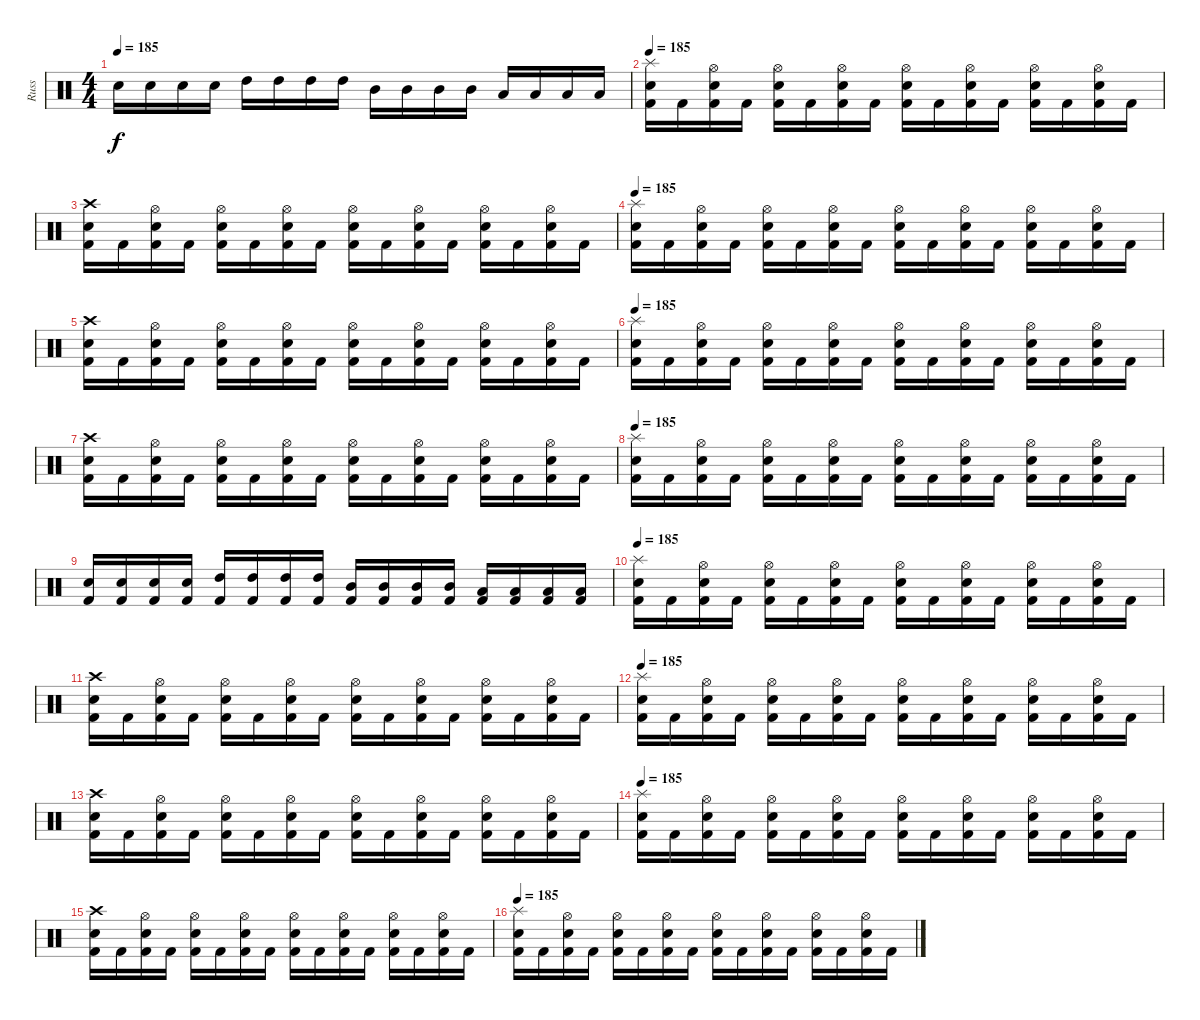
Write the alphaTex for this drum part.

\track ("Russ" "Russ") {instrument percussion}
\staff {score}
\articulation defaults
\ts (4 4)
\tempo 185
\clef neutral
\ks c "Snare (hit) 2".16{dy f} "Snare (hit) 2".16 "Snare (hit) 2".16 "Snare (hit) 2".16 "High Tom (hit)".16 "High Tom (hit)".16 "High Tom (hit)".16 "High Tom (hit)".16 "Mid Tom (hit)".16 "Mid Tom (hit)".16 "Mid Tom (hit)".16 "Mid Tom (hit)".16 "Low Floor Tom (hit)".16 "Low Floor Tom (hit)".16 "Low Floor Tom (hit)".16 "Low Floor Tom (hit)".16
|
\tempo 185
("Kick (hit) 2" "Snare (hit) 2" "Splash (hit)").16 "Kick (hit) 2".16 ("Kick (hit) 2" "Snare (hit) 2" "Hi-Hat (open)").16 "Kick (hit) 2".16 ("Kick (hit) 2" "Snare (hit) 2" "Hi-Hat (open)").16 "Kick (hit) 2".16 ("Kick (hit) 2" "Snare (hit) 2" "Hi-Hat (open)").16 "Kick (hit) 2".16 ("Kick (hit) 2" "Snare (hit) 2" "Hi-Hat (open)").16 "Kick (hit) 2".16 ("Kick (hit) 2" "Snare (hit) 2" "Hi-Hat (open)").16 "Kick (hit) 2".16 ("Kick (hit) 2" "Snare (hit) 2" "Hi-Hat (open)").16 "Kick (hit) 2".16 ("Kick (hit) 2" "Snare (hit) 2" "Hi-Hat (open)").16 "Kick (hit) 2".16 |
("Kick (hit) 2" "Snare (hit) 2" "Crash high (hit)").16 "Kick (hit) 2".16 ("Kick (hit) 2" "Snare (hit) 2" "Hi-Hat (open)").16 "Kick (hit) 2".16 ("Kick (hit) 2" "Snare (hit) 2" "Hi-Hat (open)").16 "Kick (hit) 2".16 ("Kick (hit) 2" "Snare (hit) 2" "Hi-Hat (open)").16 "Kick (hit) 2".16 ("Kick (hit) 2" "Snare (hit) 2" "Hi-Hat (open)").16 "Kick (hit) 2".16 ("Kick (hit) 2" "Snare (hit) 2" "Hi-Hat (open)").16 "Kick (hit) 2".16 ("Kick (hit) 2" "Snare (hit) 2" "Hi-Hat (open)").16 "Kick (hit) 2".16 ("Kick (hit) 2" "Snare (hit) 2" "Hi-Hat (open)").16 "Kick (hit) 2".16 |
\tempo 185
("Kick (hit) 2" "Snare (hit) 2" "Splash (hit)").16 "Kick (hit) 2".16 ("Kick (hit) 2" "Snare (hit) 2" "Hi-Hat (open)").16 "Kick (hit) 2".16 ("Kick (hit) 2" "Snare (hit) 2" "Hi-Hat (open)").16 "Kick (hit) 2".16 ("Kick (hit) 2" "Snare (hit) 2" "Hi-Hat (open)").16 "Kick (hit) 2".16 ("Kick (hit) 2" "Snare (hit) 2" "Hi-Hat (open)").16 "Kick (hit) 2".16 ("Kick (hit) 2" "Snare (hit) 2" "Hi-Hat (open)").16 "Kick (hit) 2".16 ("Kick (hit) 2" "Snare (hit) 2" "Hi-Hat (open)").16 "Kick (hit) 2".16 ("Kick (hit) 2" "Snare (hit) 2" "Hi-Hat (open)").16 "Kick (hit) 2".16 |
("Kick (hit) 2" "Snare (hit) 2" "Crash high (hit)").16 "Kick (hit) 2".16 ("Kick (hit) 2" "Snare (hit) 2" "Hi-Hat (open)").16 "Kick (hit) 2".16 ("Kick (hit) 2" "Snare (hit) 2" "Hi-Hat (open)").16 "Kick (hit) 2".16 ("Kick (hit) 2" "Snare (hit) 2" "Hi-Hat (open)").16 "Kick (hit) 2".16 ("Kick (hit) 2" "Snare (hit) 2" "Hi-Hat (open)").16 "Kick (hit) 2".16 ("Kick (hit) 2" "Snare (hit) 2" "Hi-Hat (open)").16 "Kick (hit) 2".16 ("Kick (hit) 2" "Snare (hit) 2" "Hi-Hat (open)").16 "Kick (hit) 2".16 ("Kick (hit) 2" "Snare (hit) 2" "Hi-Hat (open)").16 "Kick (hit) 2".16 |
\tempo 185
("Kick (hit) 2" "Snare (hit) 2" "Splash (hit)").16 "Kick (hit) 2".16 ("Kick (hit) 2" "Snare (hit) 2" "Hi-Hat (open)").16 "Kick (hit) 2".16 ("Kick (hit) 2" "Snare (hit) 2" "Hi-Hat (open)").16 "Kick (hit) 2".16 ("Kick (hit) 2" "Snare (hit) 2" "Hi-Hat (open)").16 "Kick (hit) 2".16 ("Kick (hit) 2" "Snare (hit) 2" "Hi-Hat (open)").16 "Kick (hit) 2".16 ("Kick (hit) 2" "Snare (hit) 2" "Hi-Hat (open)").16 "Kick (hit) 2".16 ("Kick (hit) 2" "Snare (hit) 2" "Hi-Hat (open)").16 "Kick (hit) 2".16 ("Kick (hit) 2" "Snare (hit) 2" "Hi-Hat (open)").16 "Kick (hit) 2".16 |
("Kick (hit) 2" "Snare (hit) 2" "Crash high (hit)").16 "Kick (hit) 2".16 ("Kick (hit) 2" "Snare (hit) 2" "Hi-Hat (open)").16 "Kick (hit) 2".16 ("Kick (hit) 2" "Snare (hit) 2" "Hi-Hat (open)").16 "Kick (hit) 2".16 ("Kick (hit) 2" "Snare (hit) 2" "Hi-Hat (open)").16 "Kick (hit) 2".16 ("Kick (hit) 2" "Snare (hit) 2" "Hi-Hat (open)").16 "Kick (hit) 2".16 ("Kick (hit) 2" "Snare (hit) 2" "Hi-Hat (open)").16 "Kick (hit) 2".16 ("Kick (hit) 2" "Snare (hit) 2" "Hi-Hat (open)").16 "Kick (hit) 2".16 ("Kick (hit) 2" "Snare (hit) 2" "Hi-Hat (open)").16 "Kick (hit) 2".16 |
\tempo 185
("Kick (hit) 2" "Snare (hit) 2" "Splash (hit)").16 "Kick (hit) 2".16 ("Kick (hit) 2" "Snare (hit) 2" "Hi-Hat (open)").16 "Kick (hit) 2".16 ("Kick (hit) 2" "Snare (hit) 2" "Hi-Hat (open)").16 "Kick (hit) 2".16 ("Kick (hit) 2" "Snare (hit) 2" "Hi-Hat (open)").16 "Kick (hit) 2".16 ("Kick (hit) 2" "Snare (hit) 2" "Hi-Hat (open)").16 "Kick (hit) 2".16 ("Kick (hit) 2" "Snare (hit) 2" "Hi-Hat (open)").16 "Kick (hit) 2".16 ("Kick (hit) 2" "Snare (hit) 2" "Hi-Hat (open)").16 "Kick (hit) 2".16 ("Kick (hit) 2" "Snare (hit) 2" "Hi-Hat (open)").16 "Kick (hit) 2".16 |
("Kick (hit) 2" "Snare (hit) 2").16 ("Kick (hit) 2" "Snare (hit) 2").16 ("Kick (hit) 2" "Snare (hit) 2").16 ("Kick (hit) 2" "Snare (hit) 2").16 ("Kick (hit) 2" "High Tom (hit)").16 ("Kick (hit) 2" "High Tom (hit)").16 ("Kick (hit) 2" "High Tom (hit)").16 ("Kick (hit) 2" "High Tom (hit)").16 ("Kick (hit) 2" "Mid Tom (hit)").16 ("Kick (hit) 2" "Mid Tom (hit)").16 ("Kick (hit) 2" "Mid Tom (hit)").16 ("Kick (hit) 2" "Mid Tom (hit)").16 ("Kick (hit) 2" "Low Floor Tom (hit)").16 ("Kick (hit) 2" "Low Floor Tom (hit)").16 ("Kick (hit) 2" "Low Floor Tom (hit)").16 ("Kick (hit) 2" "Low Floor Tom (hit)").16 |
\tempo 185
("Kick (hit) 2" "Snare (hit) 2" "Splash (hit)").16 "Kick (hit) 2".16 ("Kick (hit) 2" "Snare (hit) 2" "Hi-Hat (open)").16 "Kick (hit) 2".16 ("Kick (hit) 2" "Snare (hit) 2" "Hi-Hat (open)").16 "Kick (hit) 2".16 ("Kick (hit) 2" "Snare (hit) 2" "Hi-Hat (open)").16 "Kick (hit) 2".16 ("Kick (hit) 2" "Snare (hit) 2" "Hi-Hat (open)").16 "Kick (hit) 2".16 ("Kick (hit) 2" "Snare (hit) 2" "Hi-Hat (open)").16 "Kick (hit) 2".16 ("Kick (hit) 2" "Snare (hit) 2" "Hi-Hat (open)").16 "Kick (hit) 2".16 ("Kick (hit) 2" "Snare (hit) 2" "Hi-Hat (open)").16 "Kick (hit) 2".16 |
("Kick (hit) 2" "Snare (hit) 2" "Crash high (hit)").16 "Kick (hit) 2".16 ("Kick (hit) 2" "Snare (hit) 2" "Hi-Hat (open)").16 "Kick (hit) 2".16 ("Kick (hit) 2" "Snare (hit) 2" "Hi-Hat (open)").16 "Kick (hit) 2".16 ("Kick (hit) 2" "Snare (hit) 2" "Hi-Hat (open)").16 "Kick (hit) 2".16 ("Kick (hit) 2" "Snare (hit) 2" "Hi-Hat (open)").16 "Kick (hit) 2".16 ("Kick (hit) 2" "Snare (hit) 2" "Hi-Hat (open)").16 "Kick (hit) 2".16 ("Kick (hit) 2" "Snare (hit) 2" "Hi-Hat (open)").16 "Kick (hit) 2".16 ("Kick (hit) 2" "Snare (hit) 2" "Hi-Hat (open)").16 "Kick (hit) 2".16 |
\tempo 185
("Kick (hit) 2" "Snare (hit) 2" "Splash (hit)").16 "Kick (hit) 2".16 ("Kick (hit) 2" "Snare (hit) 2" "Hi-Hat (open)").16 "Kick (hit) 2".16 ("Kick (hit) 2" "Snare (hit) 2" "Hi-Hat (open)").16 "Kick (hit) 2".16 ("Kick (hit) 2" "Snare (hit) 2" "Hi-Hat (open)").16 "Kick (hit) 2".16 ("Kick (hit) 2" "Snare (hit) 2" "Hi-Hat (open)").16 "Kick (hit) 2".16 ("Kick (hit) 2" "Snare (hit) 2" "Hi-Hat (open)").16 "Kick (hit) 2".16 ("Kick (hit) 2" "Snare (hit) 2" "Hi-Hat (open)").16 "Kick (hit) 2".16 ("Kick (hit) 2" "Snare (hit) 2" "Hi-Hat (open)").16 "Kick (hit) 2".16 |
("Kick (hit) 2" "Snare (hit) 2" "Crash high (hit)").16 "Kick (hit) 2".16 ("Kick (hit) 2" "Snare (hit) 2" "Hi-Hat (open)").16 "Kick (hit) 2".16 ("Kick (hit) 2" "Snare (hit) 2" "Hi-Hat (open)").16 "Kick (hit) 2".16 ("Kick (hit) 2" "Snare (hit) 2" "Hi-Hat (open)").16 "Kick (hit) 2".16 ("Kick (hit) 2" "Snare (hit) 2" "Hi-Hat (open)").16 "Kick (hit) 2".16 ("Kick (hit) 2" "Snare (hit) 2" "Hi-Hat (open)").16 "Kick (hit) 2".16 ("Kick (hit) 2" "Snare (hit) 2" "Hi-Hat (open)").16 "Kick (hit) 2".16 ("Kick (hit) 2" "Snare (hit) 2" "Hi-Hat (open)").16 "Kick (hit) 2".16 |
\tempo 185
("Kick (hit) 2" "Snare (hit) 2" "Splash (hit)").16 "Kick (hit) 2".16 ("Kick (hit) 2" "Snare (hit) 2" "Hi-Hat (open)").16 "Kick (hit) 2".16 ("Kick (hit) 2" "Snare (hit) 2" "Hi-Hat (open)").16 "Kick (hit) 2".16 ("Kick (hit) 2" "Snare (hit) 2" "Hi-Hat (open)").16 "Kick (hit) 2".16 ("Kick (hit) 2" "Snare (hit) 2" "Hi-Hat (open)").16 "Kick (hit) 2".16 ("Kick (hit) 2" "Snare (hit) 2" "Hi-Hat (open)").16 "Kick (hit) 2".16 ("Kick (hit) 2" "Snare (hit) 2" "Hi-Hat (open)").16 "Kick (hit) 2".16 ("Kick (hit) 2" "Snare (hit) 2" "Hi-Hat (open)").16 "Kick (hit) 2".16 |
("Kick (hit) 2" "Snare (hit) 2" "Crash high (hit)").16 "Kick (hit) 2".16 ("Kick (hit) 2" "Snare (hit) 2" "Hi-Hat (open)").16 "Kick (hit) 2".16 ("Kick (hit) 2" "Snare (hit) 2" "Hi-Hat (open)").16 "Kick (hit) 2".16 ("Kick (hit) 2" "Snare (hit) 2" "Hi-Hat (open)").16 "Kick (hit) 2".16 ("Kick (hit) 2" "Snare (hit) 2" "Hi-Hat (open)").16 "Kick (hit) 2".16 ("Kick (hit) 2" "Snare (hit) 2" "Hi-Hat (open)").16 "Kick (hit) 2".16 ("Kick (hit) 2" "Snare (hit) 2" "Hi-Hat (open)").16 "Kick (hit) 2".16 ("Kick (hit) 2" "Snare (hit) 2" "Hi-Hat (open)").16 "Kick (hit) 2".16 |
\tempo 185
("Kick (hit) 2" "Snare (hit) 2" "Splash (hit)").16 "Kick (hit) 2".16 ("Kick (hit) 2" "Snare (hit) 2" "Hi-Hat (open)").16 "Kick (hit) 2".16 ("Kick (hit) 2" "Snare (hit) 2" "Hi-Hat (open)").16 "Kick (hit) 2".16 ("Kick (hit) 2" "Snare (hit) 2" "Hi-Hat (open)").16 "Kick (hit) 2".16 ("Kick (hit) 2" "Snare (hit) 2" "Hi-Hat (open)").16 "Kick (hit) 2".16 ("Kick (hit) 2" "Snare (hit) 2" "Hi-Hat (open)").16 "Kick (hit) 2".16 ("Kick (hit) 2" "Snare (hit) 2" "Hi-Hat (open)").16 "Kick (hit) 2".16 ("Kick (hit) 2" "Snare (hit) 2" "Hi-Hat (open)").16 "Kick (hit) 2".16
